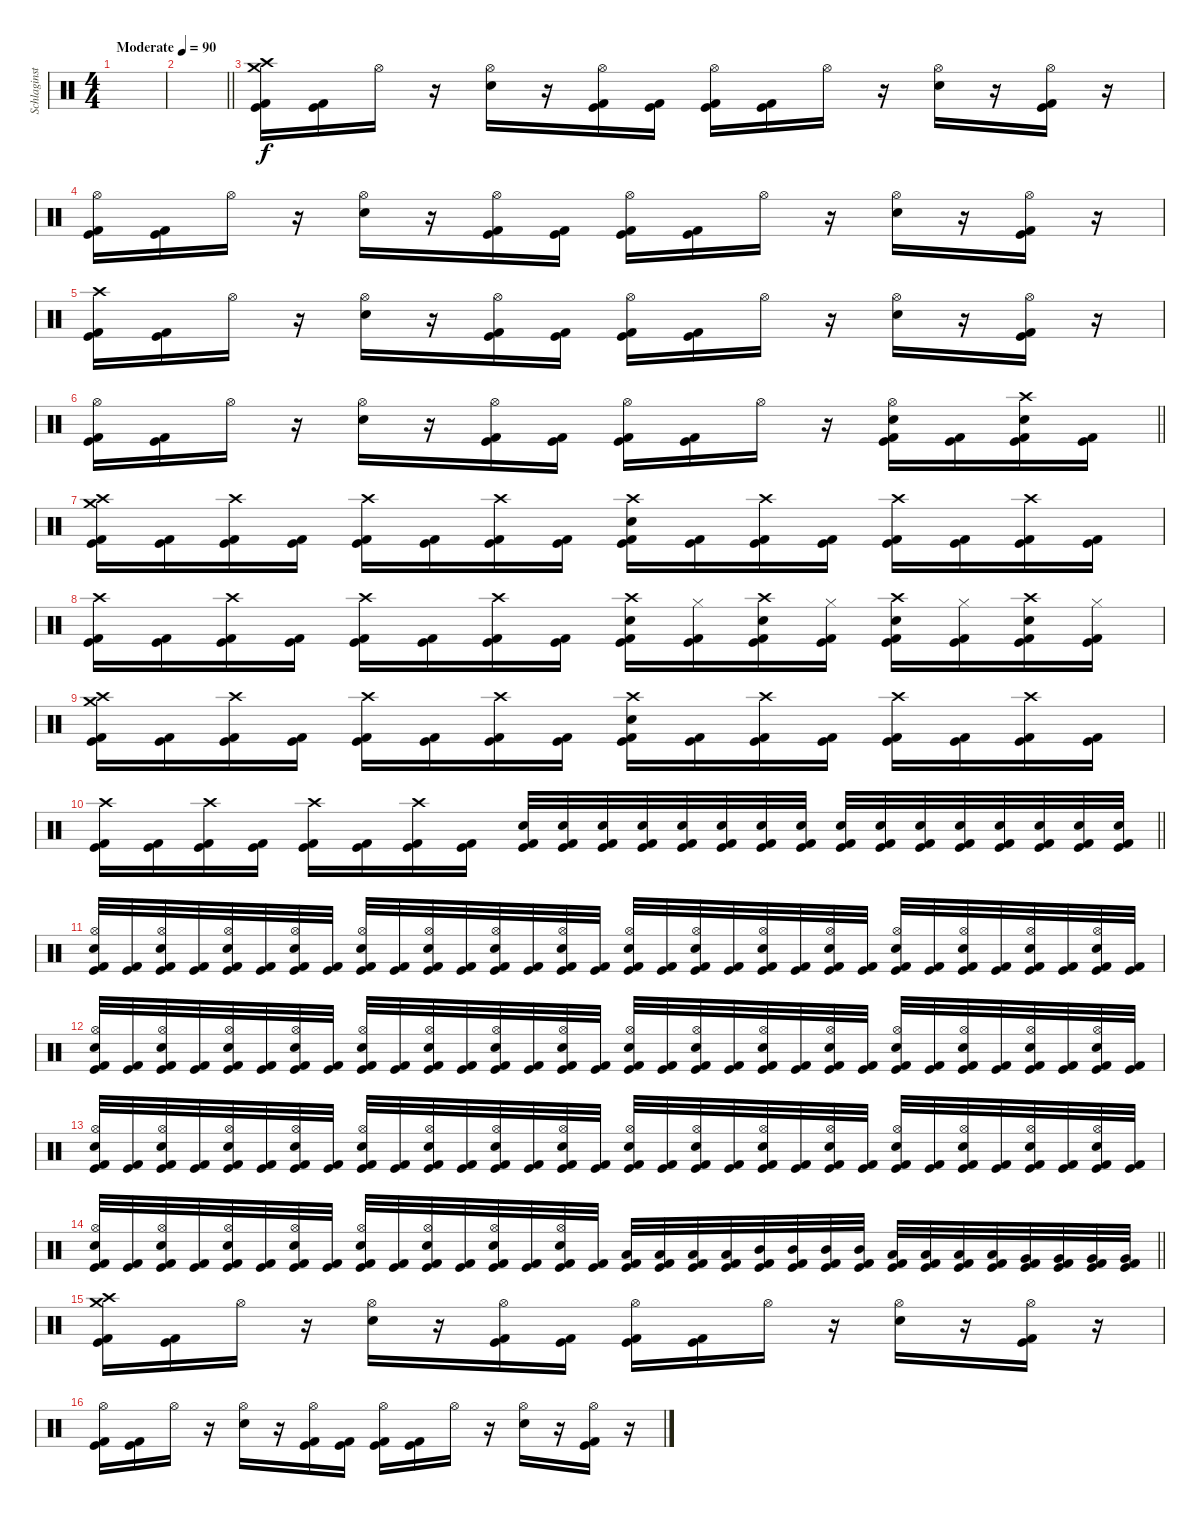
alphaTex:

\track ("Schlaginstrumente - Auswahl" "Schlaginst") {instrument percussion}
\staff {score}
\articulation defaults
\ts (4 4)
\tempo (90 "Moderate")
\clef neutral
\ks c
|
\barLineRight lightlight
|
("Crash high (hit)" "Crash medium (hit)" "Kick (hit)" "Kick (hit) 2").16 ("Kick (hit)" "Kick (hit) 2").16 "Hi-Hat (open)".16 r.16 ("Hi-Hat (open)" "Electric Snare (hit)").16 r.16 ("Hi-Hat (open)" "Kick (hit)" "Kick (hit) 2").16 ("Kick (hit)" "Kick (hit) 2").16 ("Hi-Hat (open)" "Kick (hit)" "Kick (hit) 2").16 ("Kick (hit)" "Kick (hit) 2").16 "Hi-Hat (open)".16 r.16 ("Hi-Hat (open)" "Electric Snare (hit)").16 r.16 ("Hi-Hat (open)" "Kick (hit)" "Kick (hit) 2").16 r.16 |
("Hi-Hat (open)" "Kick (hit)" "Kick (hit) 2").16 ("Kick (hit)" "Kick (hit) 2").16 "Hi-Hat (open)".16 r.16 ("Hi-Hat (open)" "Electric Snare (hit)").16 r.16 ("Hi-Hat (open)" "Kick (hit)" "Kick (hit) 2").16 ("Kick (hit)" "Kick (hit) 2").16 ("Hi-Hat (open)" "Kick (hit)" "Kick (hit) 2").16 ("Kick (hit)" "Kick (hit) 2").16 "Hi-Hat (open)".16 r.16 ("Hi-Hat (open)" "Electric Snare (hit)").16 r.16 ("Hi-Hat (open)" "Kick (hit)" "Kick (hit) 2").16 r.16 |
("Crash high (hit)" "Kick (hit)" "Kick (hit) 2").16 ("Kick (hit)" "Kick (hit) 2").16 "Hi-Hat (open)".16 r.16 ("Hi-Hat (open)" "Electric Snare (hit)").16 r.16 ("Hi-Hat (open)" "Kick (hit)" "Kick (hit) 2").16 ("Kick (hit)" "Kick (hit) 2").16 ("Hi-Hat (open)" "Kick (hit)" "Kick (hit) 2").16 ("Kick (hit)" "Kick (hit) 2").16 "Hi-Hat (open)".16 r.16 ("Hi-Hat (open)" "Electric Snare (hit)").16 r.16 ("Hi-Hat (open)" "Kick (hit)" "Kick (hit) 2").16 r.16 |
\barLineRight lightlight
("Hi-Hat (open)" "Kick (hit)" "Kick (hit) 2").16 ("Kick (hit)" "Kick (hit) 2").16 "Hi-Hat (open)".16 r.16 ("Hi-Hat (open)" "Electric Snare (hit)").16 r.16 ("Hi-Hat (open)" "Kick (hit)" "Kick (hit) 2").16 ("Kick (hit)" "Kick (hit) 2").16 ("Hi-Hat (open)" "Kick (hit)" "Kick (hit) 2").16 ("Kick (hit)" "Kick (hit) 2").16 "Hi-Hat (open)".16 r.16 ("Hi-Hat (open)" "Electric Snare (hit)" "Kick (hit)" "Kick (hit) 2").16 ("Kick (hit)" "Kick (hit) 2").16 ("Crash high (hit)" "Electric Snare (hit)" "Kick (hit)" "Kick (hit) 2").16 ("Kick (hit)" "Kick (hit) 2").16 |
("Crash high (hit)" "Crash medium (hit)" "Kick (hit)" "Kick (hit) 2").16 ("Kick (hit)" "Kick (hit) 2").16 ("Crash high (hit)" "Kick (hit)" "Kick (hit) 2").16 ("Kick (hit)" "Kick (hit) 2").16 ("Crash high (hit)" "Kick (hit)" "Kick (hit) 2").16 ("Kick (hit)" "Kick (hit) 2").16 ("Crash high (hit)" "Kick (hit)" "Kick (hit) 2").16 ("Kick (hit)" "Kick (hit) 2").16 ("Crash high (hit)" "Electric Snare (hit)" "Kick (hit)" "Kick (hit) 2").16 ("Kick (hit)" "Kick (hit) 2").16 ("Crash high (hit)" "Kick (hit)" "Kick (hit) 2").16 ("Kick (hit)" "Kick (hit) 2").16 ("Crash high (hit)" "Kick (hit)" "Kick (hit) 2").16 ("Kick (hit)" "Kick (hit) 2").16 ("Crash high (hit)" "Kick (hit)" "Kick (hit) 2").16 ("Kick (hit)" "Kick (hit) 2").16 |
("Crash high (hit)" "Kick (hit)" "Kick (hit) 2").16 ("Kick (hit)" "Kick (hit) 2").16 ("Crash high (hit)" "Kick (hit)" "Kick (hit) 2").16 ("Kick (hit)" "Kick (hit) 2").16 ("Crash high (hit)" "Kick (hit)" "Kick (hit) 2").16 ("Kick (hit)" "Kick (hit) 2").16 ("Crash high (hit)" "Kick (hit)" "Kick (hit) 2").16 ("Kick (hit)" "Kick (hit) 2").16 ("Crash high (hit)" "Electric Snare (hit)" "Kick (hit)" "Kick (hit) 2").16 ("Hi-Hat (closed)" "Kick (hit)" "Kick (hit) 2").16 ("Crash high (hit)" "Electric Snare (hit)" "Kick (hit)" "Kick (hit) 2").16 ("Hi-Hat (closed)" "Kick (hit)" "Kick (hit) 2").16 ("Crash high (hit)" "Electric Snare (hit)" "Kick (hit)" "Kick (hit) 2").16 ("Hi-Hat (closed)" "Kick (hit)" "Kick (hit) 2").16 ("Crash high (hit)" "Electric Snare (hit)" "Kick (hit)" "Kick (hit) 2").16 ("Hi-Hat (closed)" "Kick (hit)" "Kick (hit) 2").16 |
("Crash high (hit)" "Crash medium (hit)" "Kick (hit)" "Kick (hit) 2").16 ("Kick (hit)" "Kick (hit) 2").16 ("Crash high (hit)" "Kick (hit)" "Kick (hit) 2").16 ("Kick (hit)" "Kick (hit) 2").16 ("Crash high (hit)" "Kick (hit)" "Kick (hit) 2").16 ("Kick (hit)" "Kick (hit) 2").16 ("Crash high (hit)" "Kick (hit)" "Kick (hit) 2").16 ("Kick (hit)" "Kick (hit) 2").16 ("Crash high (hit)" "Electric Snare (hit)" "Kick (hit)" "Kick (hit) 2").16 ("Kick (hit)" "Kick (hit) 2").16 ("Crash high (hit)" "Kick (hit)" "Kick (hit) 2").16 ("Kick (hit)" "Kick (hit) 2").16 ("Crash high (hit)" "Kick (hit)" "Kick (hit) 2").16 ("Kick (hit)" "Kick (hit) 2").16 ("Crash high (hit)" "Kick (hit)" "Kick (hit) 2").16 ("Kick (hit)" "Kick (hit) 2").16 |
\barLineRight lightlight
("Crash high (hit)" "Kick (hit)" "Kick (hit) 2").16 ("Kick (hit)" "Kick (hit) 2").16 ("Crash high (hit)" "Kick (hit)" "Kick (hit) 2").16 ("Kick (hit)" "Kick (hit) 2").16 ("Crash high (hit)" "Kick (hit)" "Kick (hit) 2").16 ("Kick (hit)" "Kick (hit) 2").16 ("Crash high (hit)" "Kick (hit)" "Kick (hit) 2").16 ("Kick (hit)" "Kick (hit) 2").16 ("Electric Snare (hit)" "Kick (hit)" "Kick (hit) 2").32 ("Electric Snare (hit)" "Kick (hit)" "Kick (hit) 2").32 ("Electric Snare (hit)" "Kick (hit)" "Kick (hit) 2").32 ("Electric Snare (hit)" "Kick (hit)" "Kick (hit) 2").32 ("Electric Snare (hit)" "Kick (hit)" "Kick (hit) 2").32 ("Electric Snare (hit)" "Kick (hit)" "Kick (hit) 2").32 ("Electric Snare (hit)" "Kick (hit)" "Kick (hit) 2").32 ("Electric Snare (hit)" "Kick (hit)" "Kick (hit) 2").32 ("Electric Snare (hit)" "Kick (hit)" "Kick (hit) 2").32 ("Electric Snare (hit)" "Kick (hit)" "Kick (hit) 2").32 ("Electric Snare (hit)" "Kick (hit)" "Kick (hit) 2").32 ("Electric Snare (hit)" "Kick (hit)" "Kick (hit) 2").32 ("Electric Snare (hit)" "Kick (hit)" "Kick (hit) 2").32 ("Electric Snare (hit)" "Kick (hit)" "Kick (hit) 2").32 ("Electric Snare (hit)" "Kick (hit)" "Kick (hit) 2").32 ("Electric Snare (hit)" "Kick (hit)" "Kick (hit) 2").32 |
("Hi-Hat (open)" "Electric Snare (hit)" "Kick (hit)" "Kick (hit) 2").32 ("Kick (hit)" "Kick (hit) 2").32 ("Hi-Hat (open)" "Electric Snare (hit)" "Kick (hit)" "Kick (hit) 2").32 ("Kick (hit)" "Kick (hit) 2").32 ("Hi-Hat (open)" "Electric Snare (hit)" "Kick (hit)" "Kick (hit) 2").32 ("Kick (hit)" "Kick (hit) 2").32 ("Hi-Hat (open)" "Electric Snare (hit)" "Kick (hit)" "Kick (hit) 2").32 ("Kick (hit)" "Kick (hit) 2").32 ("Hi-Hat (open)" "Electric Snare (hit)" "Kick (hit)" "Kick (hit) 2").32 ("Kick (hit)" "Kick (hit) 2").32 ("Hi-Hat (open)" "Electric Snare (hit)" "Kick (hit)" "Kick (hit) 2").32 ("Kick (hit)" "Kick (hit) 2").32 ("Hi-Hat (open)" "Electric Snare (hit)" "Kick (hit)" "Kick (hit) 2").32 ("Kick (hit)" "Kick (hit) 2").32 ("Hi-Hat (open)" "Electric Snare (hit)" "Kick (hit)" "Kick (hit) 2").32 ("Kick (hit)" "Kick (hit) 2").32 ("Hi-Hat (open)" "Electric Snare (hit)" "Kick (hit)" "Kick (hit) 2").32 ("Kick (hit)" "Kick (hit) 2").32 ("Hi-Hat (open)" "Electric Snare (hit)" "Kick (hit)" "Kick (hit) 2").32 ("Kick (hit)" "Kick (hit) 2").32 ("Hi-Hat (open)" "Electric Snare (hit)" "Kick (hit)" "Kick (hit) 2").32 ("Kick (hit)" "Kick (hit) 2").32 ("Hi-Hat (open)" "Electric Snare (hit)" "Kick (hit)" "Kick (hit) 2").32 ("Kick (hit)" "Kick (hit) 2").32 ("Hi-Hat (open)" "Electric Snare (hit)" "Kick (hit)" "Kick (hit) 2").32 ("Kick (hit)" "Kick (hit) 2").32 ("Hi-Hat (open)" "Electric Snare (hit)" "Kick (hit)" "Kick (hit) 2").32 ("Kick (hit)" "Kick (hit) 2").32 ("Hi-Hat (open)" "Electric Snare (hit)" "Kick (hit)" "Kick (hit) 2").32 ("Kick (hit)" "Kick (hit) 2").32 ("Hi-Hat (open)" "Electric Snare (hit)" "Kick (hit)" "Kick (hit) 2").32 ("Kick (hit)" "Kick (hit) 2").32 |
("Hi-Hat (open)" "Electric Snare (hit)" "Kick (hit)" "Kick (hit) 2").32 ("Kick (hit)" "Kick (hit) 2").32 ("Hi-Hat (open)" "Electric Snare (hit)" "Kick (hit)" "Kick (hit) 2").32 ("Kick (hit)" "Kick (hit) 2").32 ("Hi-Hat (open)" "Electric Snare (hit)" "Kick (hit)" "Kick (hit) 2").32 ("Kick (hit)" "Kick (hit) 2").32 ("Hi-Hat (open)" "Electric Snare (hit)" "Kick (hit)" "Kick (hit) 2").32 ("Kick (hit)" "Kick (hit) 2").32 ("Hi-Hat (open)" "Electric Snare (hit)" "Kick (hit)" "Kick (hit) 2").32 ("Kick (hit)" "Kick (hit) 2").32 ("Hi-Hat (open)" "Electric Snare (hit)" "Kick (hit)" "Kick (hit) 2").32 ("Kick (hit)" "Kick (hit) 2").32 ("Hi-Hat (open)" "Electric Snare (hit)" "Kick (hit)" "Kick (hit) 2").32 ("Kick (hit)" "Kick (hit) 2").32 ("Hi-Hat (open)" "Electric Snare (hit)" "Kick (hit)" "Kick (hit) 2").32 ("Kick (hit)" "Kick (hit) 2").32 ("Hi-Hat (open)" "Electric Snare (hit)" "Kick (hit)" "Kick (hit) 2").32 ("Kick (hit)" "Kick (hit) 2").32 ("Hi-Hat (open)" "Electric Snare (hit)" "Kick (hit)" "Kick (hit) 2").32 ("Kick (hit)" "Kick (hit) 2").32 ("Hi-Hat (open)" "Electric Snare (hit)" "Kick (hit)" "Kick (hit) 2").32 ("Kick (hit)" "Kick (hit) 2").32 ("Hi-Hat (open)" "Electric Snare (hit)" "Kick (hit)" "Kick (hit) 2").32 ("Kick (hit)" "Kick (hit) 2").32 ("Hi-Hat (open)" "Electric Snare (hit)" "Kick (hit)" "Kick (hit) 2").32 ("Kick (hit)" "Kick (hit) 2").32 ("Hi-Hat (open)" "Electric Snare (hit)" "Kick (hit)" "Kick (hit) 2").32 ("Kick (hit)" "Kick (hit) 2").32 ("Hi-Hat (open)" "Electric Snare (hit)" "Kick (hit)" "Kick (hit) 2").32 ("Kick (hit)" "Kick (hit) 2").32 ("Hi-Hat (open)" "Electric Snare (hit)" "Kick (hit)" "Kick (hit) 2").32 ("Kick (hit)" "Kick (hit) 2").32 |
("Hi-Hat (open)" "Electric Snare (hit)" "Kick (hit)" "Kick (hit) 2").32 ("Kick (hit)" "Kick (hit) 2").32 ("Hi-Hat (open)" "Electric Snare (hit)" "Kick (hit)" "Kick (hit) 2").32 ("Kick (hit)" "Kick (hit) 2").32 ("Hi-Hat (open)" "Electric Snare (hit)" "Kick (hit)" "Kick (hit) 2").32 ("Kick (hit)" "Kick (hit) 2").32 ("Hi-Hat (open)" "Electric Snare (hit)" "Kick (hit)" "Kick (hit) 2").32 ("Kick (hit)" "Kick (hit) 2").32 ("Hi-Hat (open)" "Electric Snare (hit)" "Kick (hit)" "Kick (hit) 2").32 ("Kick (hit)" "Kick (hit) 2").32 ("Hi-Hat (open)" "Electric Snare (hit)" "Kick (hit)" "Kick (hit) 2").32 ("Kick (hit)" "Kick (hit) 2").32 ("Hi-Hat (open)" "Electric Snare (hit)" "Kick (hit)" "Kick (hit) 2").32 ("Kick (hit)" "Kick (hit) 2").32 ("Hi-Hat (open)" "Electric Snare (hit)" "Kick (hit)" "Kick (hit) 2").32 ("Kick (hit)" "Kick (hit) 2").32 ("Hi-Hat (open)" "Electric Snare (hit)" "Kick (hit)" "Kick (hit) 2").32 ("Kick (hit)" "Kick (hit) 2").32 ("Hi-Hat (open)" "Electric Snare (hit)" "Kick (hit)" "Kick (hit) 2").32 ("Kick (hit)" "Kick (hit) 2").32 ("Hi-Hat (open)" "Electric Snare (hit)" "Kick (hit)" "Kick (hit) 2").32 ("Kick (hit)" "Kick (hit) 2").32 ("Hi-Hat (open)" "Electric Snare (hit)" "Kick (hit)" "Kick (hit) 2").32 ("Kick (hit)" "Kick (hit) 2").32 ("Hi-Hat (open)" "Electric Snare (hit)" "Kick (hit)" "Kick (hit) 2").32 ("Kick (hit)" "Kick (hit) 2").32 ("Hi-Hat (open)" "Electric Snare (hit)" "Kick (hit)" "Kick (hit) 2").32 ("Kick (hit)" "Kick (hit) 2").32 ("Hi-Hat (open)" "Electric Snare (hit)" "Kick (hit)" "Kick (hit) 2").32 ("Kick (hit)" "Kick (hit) 2").32 ("Hi-Hat (open)" "Electric Snare (hit)" "Kick (hit)" "Kick (hit) 2").32 ("Kick (hit)" "Kick (hit) 2").32 |
\barLineRight lightlight
("Hi-Hat (open)" "Electric Snare (hit)" "Kick (hit)" "Kick (hit) 2").32 ("Kick (hit)" "Kick (hit) 2").32 ("Hi-Hat (open)" "Electric Snare (hit)" "Kick (hit)" "Kick (hit) 2").32 ("Kick (hit)" "Kick (hit) 2").32 ("Hi-Hat (open)" "Electric Snare (hit)" "Kick (hit)" "Kick (hit) 2").32 ("Kick (hit)" "Kick (hit) 2").32 ("Hi-Hat (open)" "Electric Snare (hit)" "Kick (hit)" "Kick (hit) 2").32 ("Kick (hit)" "Kick (hit) 2").32 ("Hi-Hat (open)" "Electric Snare (hit)" "Kick (hit)" "Kick (hit) 2").32 ("Kick (hit)" "Kick (hit) 2").32 ("Hi-Hat (open)" "Electric Snare (hit)" "Kick (hit)" "Kick (hit) 2").32 ("Kick (hit)" "Kick (hit) 2").32 ("Hi-Hat (open)" "Electric Snare (hit)" "Kick (hit)" "Kick (hit) 2").32 ("Kick (hit)" "Kick (hit) 2").32 ("Hi-Hat (open)" "Electric Snare (hit)" "Kick (hit)" "Kick (hit) 2").32 ("Kick (hit)" "Kick (hit) 2").32 ("Low Tom (hit)" "Kick (hit)" "Kick (hit) 2").32 ("Low Tom (hit)" "Kick (hit)" "Kick (hit) 2").32 ("Low Tom (hit)" "Kick (hit)" "Kick (hit) 2").32 ("Low Tom (hit)" "Kick (hit)" "Kick (hit) 2").32 ("Mid Tom (hit)" "Kick (hit)" "Kick (hit) 2").32 ("Mid Tom (hit)" "Kick (hit)" "Kick (hit) 2").32 ("Mid Tom (hit)" "Kick (hit)" "Kick (hit) 2").32 ("Mid Tom (hit)" "Kick (hit)" "Kick (hit) 2").32 ("Low Floor Tom (hit)" "Kick (hit)" "Kick (hit) 2").32 ("Low Floor Tom (hit)" "Kick (hit)" "Kick (hit) 2").32 ("Low Floor Tom (hit)" "Kick (hit)" "Kick (hit) 2").32 ("Low Floor Tom (hit)" "Kick (hit)" "Kick (hit) 2").32 ("Very Low Tom (hit)" "Kick (hit)" "Kick (hit) 2").32 ("Very Low Tom (hit)" "Kick (hit)" "Kick (hit) 2").32 ("Very Low Tom (hit)" "Kick (hit)" "Kick (hit) 2").32 ("Very Low Tom (hit)" "Kick (hit)" "Kick (hit) 2").32 |
("Crash high (hit)" "Crash medium (hit)" "Kick (hit)" "Kick (hit) 2").16 ("Kick (hit)" "Kick (hit) 2").16 "Hi-Hat (open)".16 r.16 ("Hi-Hat (open)" "Electric Snare (hit)").16 r.16 ("Hi-Hat (open)" "Kick (hit)" "Kick (hit) 2").16 ("Kick (hit)" "Kick (hit) 2").16 ("Hi-Hat (open)" "Kick (hit)" "Kick (hit) 2").16 ("Kick (hit)" "Kick (hit) 2").16 "Hi-Hat (open)".16 r.16 ("Hi-Hat (open)" "Electric Snare (hit)").16 r.16 ("Hi-Hat (open)" "Kick (hit)" "Kick (hit) 2").16 r.16 |
("Hi-Hat (open)" "Kick (hit)" "Kick (hit) 2").16 ("Kick (hit)" "Kick (hit) 2").16 "Hi-Hat (open)".16 r.16 ("Hi-Hat (open)" "Electric Snare (hit)").16 r.16 ("Hi-Hat (open)" "Kick (hit)" "Kick (hit) 2").16 ("Kick (hit)" "Kick (hit) 2").16 ("Hi-Hat (open)" "Kick (hit)" "Kick (hit) 2").16 ("Kick (hit)" "Kick (hit) 2").16 "Hi-Hat (open)".16 r.16 ("Hi-Hat (open)" "Electric Snare (hit)").16 r.16 ("Hi-Hat (open)" "Kick (hit)" "Kick (hit) 2").16 r.16
